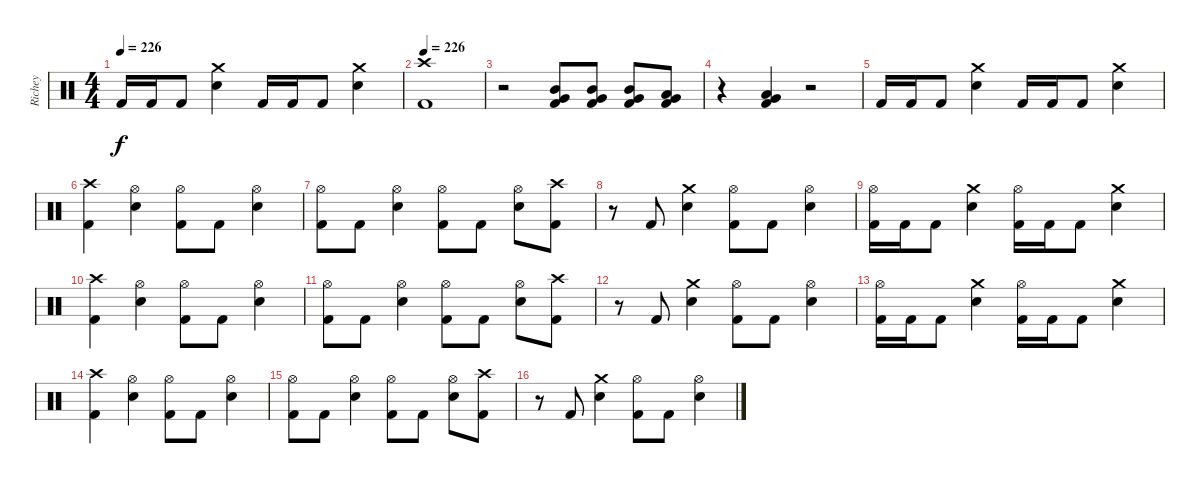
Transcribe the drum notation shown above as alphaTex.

\track ("Richey" "Richey") {instrument percussion}
\staff {score}
\articulation defaults
\ts (4 4)
\tempo 226
\clef neutral
\ks c "Kick (hit) 2".16{dy f} "Kick (hit) 2".16 "Kick (hit) 2".8
("Crash medium (hit)" "Snare (hit) 2").4 "Kick (hit) 2".16 "Kick (hit) 2".16 "Kick (hit) 2".8 ("Crash medium (hit)" "Snare (hit) 2").4 |
\tempo 226
("Crash high (hit)" "Kick (hit) 2").1 |
r.2 ("Mid Tom (hit)" "Very Low Tom (hit)" "Kick (hit) 2").8 ("Mid Tom (hit)" "Very Low Tom (hit)" "Kick (hit) 2").8 ("Mid Tom (hit)" "Very Low Tom (hit)" "Kick (hit) 2").8 ("Low Tom (hit)" "Very Low Tom (hit)" "Kick (hit) 2").8 |
r.4 ("Low Tom (hit)" "Very Low Tom (hit)" "Kick (hit) 2").4 r.2 |
"Kick (hit) 2".16 "Kick (hit) 2".16 "Kick (hit) 2".8 ("Crash medium (hit)" "Snare (hit) 2").4 "Kick (hit) 2".16 "Kick (hit) 2".16 "Kick (hit) 2".8 ("Crash medium (hit)" "Snare (hit) 2").4 |
("Crash high (hit)" "Kick (hit) 2").4 ("Hi-Hat (open)" "Snare (hit) 2").4 ("Hi-Hat (open)" "Kick (hit) 2").8 "Kick (hit) 2".8 ("Hi-Hat (open)" "Snare (hit) 2").4 |
("Hi-Hat (open)" "Kick (hit) 2").8 "Kick (hit) 2".8 ("Hi-Hat (open)" "Snare (hit) 2").4 ("Hi-Hat (open)" "Kick (hit) 2").8 "Kick (hit) 2".8 ("Hi-Hat (open)" "Snare (hit) 2").8 ("Crash high (hit)" "Kick (hit) 2").8 |
r.8 "Kick (hit) 2".8 ("Crash medium (hit)" "Snare (hit) 2").4 ("Hi-Hat (open)" "Kick (hit) 2").8 "Kick (hit) 2".8 ("Hi-Hat (open)" "Snare (hit) 2").4 |
("Hi-Hat (open)" "Kick (hit) 2").16 "Kick (hit) 2".16 "Kick (hit) 2".8 ("Crash medium (hit)" "Snare (hit) 2").4 ("Hi-Hat (open)" "Kick (hit) 2").16 "Kick (hit) 2".16 "Kick (hit) 2".8 ("Crash medium (hit)" "Snare (hit) 2").4 |
("Crash high (hit)" "Kick (hit) 2").4 ("Hi-Hat (open)" "Snare (hit) 2").4 ("Hi-Hat (open)" "Kick (hit) 2").8 "Kick (hit) 2".8 ("Hi-Hat (open)" "Snare (hit) 2").4 |
("Hi-Hat (open)" "Kick (hit) 2").8 "Kick (hit) 2".8 ("Hi-Hat (open)" "Snare (hit) 2").4 ("Hi-Hat (open)" "Kick (hit) 2").8 "Kick (hit) 2".8 ("Hi-Hat (open)" "Snare (hit) 2").8 ("Crash high (hit)" "Kick (hit) 2").8 |
r.8 "Kick (hit) 2".8 ("Crash medium (hit)" "Snare (hit) 2").4 ("Hi-Hat (open)" "Kick (hit) 2").8 "Kick (hit) 2".8 ("Hi-Hat (open)" "Snare (hit) 2").4 |
("Hi-Hat (open)" "Kick (hit) 2").16 "Kick (hit) 2".16 "Kick (hit) 2".8 ("Crash medium (hit)" "Snare (hit) 2").4 ("Hi-Hat (open)" "Kick (hit) 2").16 "Kick (hit) 2".16 "Kick (hit) 2".8 ("Crash medium (hit)" "Snare (hit) 2").4 |
("Crash high (hit)" "Kick (hit) 2").4 ("Hi-Hat (open)" "Snare (hit) 2").4 ("Hi-Hat (open)" "Kick (hit) 2").8 "Kick (hit) 2".8 ("Hi-Hat (open)" "Snare (hit) 2").4 |
("Hi-Hat (open)" "Kick (hit) 2").8 "Kick (hit) 2".8 ("Hi-Hat (open)" "Snare (hit) 2").4 ("Hi-Hat (open)" "Kick (hit) 2").8 "Kick (hit) 2".8 ("Hi-Hat (open)" "Snare (hit) 2").8 ("Crash high (hit)" "Kick (hit) 2").8 |
r.8 "Kick (hit) 2".8 ("Crash medium (hit)" "Snare (hit) 2").4 ("Hi-Hat (open)" "Kick (hit) 2").8 "Kick (hit) 2".8 ("Hi-Hat (open)" "Snare (hit) 2").4
